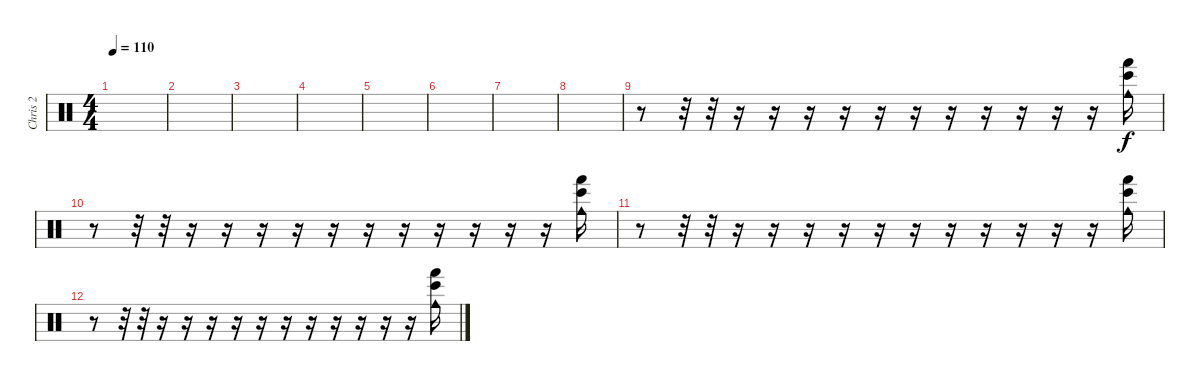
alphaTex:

\track ("Chris 2" "Chris 2") {instrument percussion}
\staff {score}
\articulation defaults
\ts (4 4)
\tempo 110
\clef neutral
\ks c
|
|
|
|
|
|
|
|
r.8 r.32 r.32 r.16 r.16 r.16 r.16 r.16 r.16 r.16 r.16 r.16 r.16 r.16 ("Hand (hit)" "Bongo High (hit)" "Cowbell medium (hit)").16 |
r.8 r.32 r.32 r.16 r.16 r.16 r.16 r.16 r.16 r.16 r.16 r.16 r.16 r.16 ("Hand (hit)" "Bongo High (hit)" "Cowbell medium (hit)").16 |
r.8 r.32 r.32 r.16 r.16 r.16 r.16 r.16 r.16 r.16 r.16 r.16 r.16 r.16 ("Hand (hit)" "Bongo High (hit)" "Cowbell medium (hit)").16 |
r.8 r.32 r.32 r.16 r.16 r.16 r.16 r.16 r.16 r.16 r.16 r.16 r.16 r.16 ("Hand (hit)" "Bongo High (hit)" "Cowbell medium (hit)").16
